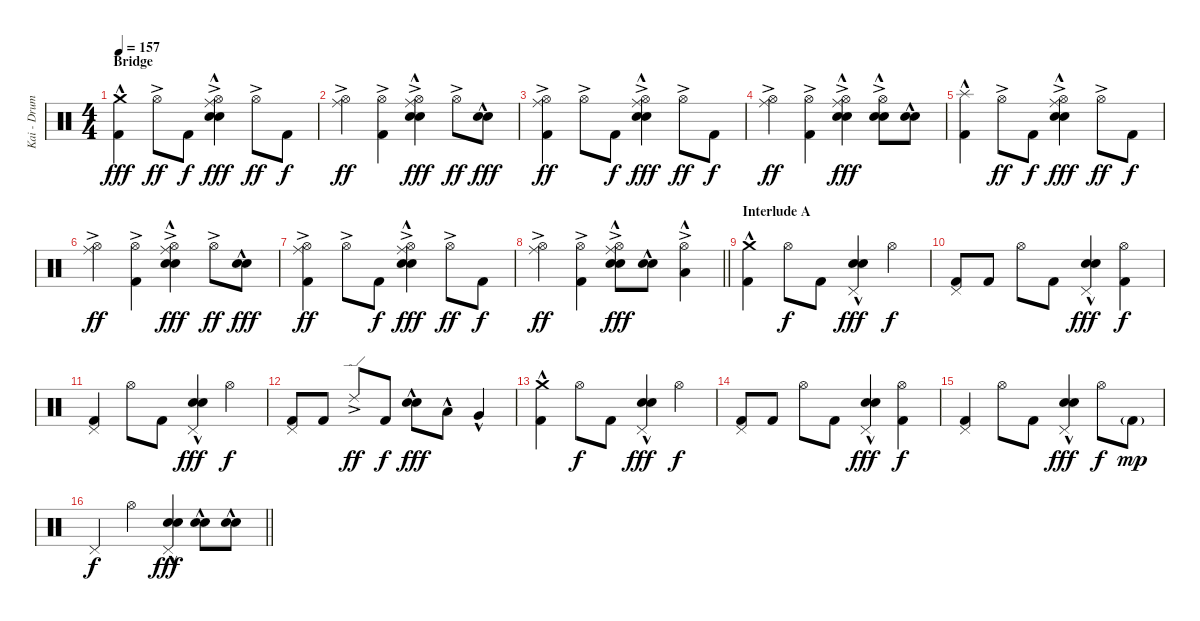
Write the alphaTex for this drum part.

\track ("Kai - Drums" "Kai - Drum") {instrument percussion}
\staff {score}
\articulation defaults
\ts (4 4)
\section ("" "Bridge")
\tempo 157
\clef neutral
\ks c
("Crash medium (hit)"{hac} "Kick (hit) 2").4{dy fff} "Hi-Hat (open)"{ac}.8{dy ff} "Kick (hit) 2".8{dy f} ("Hi-Hat (open)"{ac} "Ride (middle)" "Electric Snare (hit)"{hac} "Snare (hit) 2"{hac}).4{dy fff} "Hi-Hat (open)"{ac}.8{dy ff} "Kick (hit) 2".8{dy f} |
("Hi-Hat (open)"{ac} "Ride (middle)").4{dy ff} ("Hi-Hat (open)"{ac} "Kick (hit) 2").4 ("Hi-Hat (open)"{ac} "Ride (middle)" "Electric Snare (hit)"{hac} "Snare (hit) 2"{hac}).4{dy fff} "Hi-Hat (open)"{ac}.8{dy ff} ("Electric Snare (hit)"{hac} "Snare (hit) 2"{hac}).8{dy fff} |
("Hi-Hat (open)"{ac} "Ride (middle)" "Kick (hit) 2").4{dy ff} "Hi-Hat (open)"{ac}.8 "Kick (hit) 2".8{dy f} ("Hi-Hat (open)"{ac} "Ride (middle)" "Electric Snare (hit)"{hac} "Snare (hit) 2"{hac}).4{dy fff} "Hi-Hat (open)"{ac}.8{dy ff} "Kick (hit) 2".8{dy f} |
("Hi-Hat (open)"{ac} "Ride (middle)").4{dy ff} ("Hi-Hat (open)"{ac} "Kick (hit) 2").4 ("Hi-Hat (open)"{ac} "Ride (middle)" "Electric Snare (hit)"{hac} "Snare (hit) 2"{hac}).4{dy fff} ("Hi-Hat (open)"{ac} "Electric Snare (hit)"{hac} "Snare (hit) 2"{hac}).8 ("Electric Snare (hit)"{hac} "Snare (hit) 2"{hac}).8 |
("Splash (hit)"{hac} "Kick (hit) 2").4 "Hi-Hat (open)"{ac}.8{dy ff} "Kick (hit) 2".8{dy f} ("Hi-Hat (open)"{ac} "Ride (middle)" "Electric Snare (hit)"{hac} "Snare (hit) 2"{hac}).4{dy fff} "Hi-Hat (open)"{ac}.8{dy ff} "Kick (hit) 2".8{dy f} |
("Hi-Hat (open)"{ac} "Ride (middle)").4{dy ff} ("Hi-Hat (open)"{ac} "Kick (hit) 2").4 ("Hi-Hat (open)"{ac} "Ride (middle)" "Electric Snare (hit)"{hac} "Snare (hit) 2"{hac}).4{dy fff} "Hi-Hat (open)"{ac}.8{dy ff} ("Electric Snare (hit)"{hac} "Snare (hit) 2"{hac}).8{dy fff} |
("Hi-Hat (open)"{ac} "Ride (middle)" "Kick (hit) 2").4{dy ff} "Hi-Hat (open)"{ac}.8 "Kick (hit) 2".8{dy f} ("Hi-Hat (open)"{ac} "Ride (middle)" "Electric Snare (hit)"{hac} "Snare (hit) 2"{hac}).4{dy fff} "Hi-Hat (open)"{ac}.8{dy ff} "Kick (hit) 2".8{dy f} |
\barLineRight lightlight
("Hi-Hat (open)"{ac} "Ride (middle)").4{dy ff} ("Hi-Hat (open)"{ac} "Kick (hit) 2").4 ("Hi-Hat (open)"{ac} "Ride (middle)" "Electric Snare (hit)"{hac} "Snare (hit) 2"{hac}).8{dy fff} ("Electric Snare (hit)"{hac} "Snare (hit) 2"{hac}).8 ("Hi-Hat (open)"{ac} "Low Tom (hit)"{hac}).4 |
\section ("" "Interlude A")
("Crash medium (hit)"{hac} "Kick (hit) 2").4{volume 16} "Hi-Hat (open)".8{dy f} "Kick (hit) 2".8 ("Pedal Hi-Hat (hit)" "Electric Snare (hit)"{hac} "Snare (hit) 2"{hac}).4{dy fff} "Hi-Hat (open)".4{dy f} |
("Pedal Hi-Hat (hit)" "Kick (hit) 2").8 "Kick (hit) 2".8 "Hi-Hat (open)".8 "Kick (hit) 2".8 ("Pedal Hi-Hat (hit)" "Electric Snare (hit)"{hac} "Snare (hit) 2"{hac}).4{dy fff} ("Hi-Hat (open)" "Kick (hit) 2").4{dy f} |
("Pedal Hi-Hat (hit)" "Kick (hit) 2").4 "Hi-Hat (open)".8 "Kick (hit) 2".8 ("Pedal Hi-Hat (hit)" "Electric Snare (hit)"{hac} "Snare (hit) 2"{hac}).4{dy fff} "Hi-Hat (open)".4{dy f} |
("Pedal Hi-Hat (hit)" "Kick (hit) 2").8 "Kick (hit) 2".8 "Ride (edge) 2"{ac}.8{dy ff} "Kick (hit) 2".8{dy f} ("Electric Snare (hit)"{hac} "Snare (hit) 2"{hac}).8{dy fff} "Low Tom (hit)"{hac}.8 "Very Low Tom (hit)"{hac}.4 |
("Crash medium (hit)"{hac} "Kick (hit) 2").4 "Hi-Hat (open)".8{dy f} "Kick (hit) 2".8 ("Pedal Hi-Hat (hit)" "Electric Snare (hit)"{hac} "Snare (hit) 2"{hac}).4{dy fff} "Hi-Hat (open)".4{dy f} |
("Pedal Hi-Hat (hit)" "Kick (hit) 2").8 "Kick (hit) 2".8 "Hi-Hat (open)".8 "Kick (hit) 2".8 ("Pedal Hi-Hat (hit)" "Electric Snare (hit)"{hac} "Snare (hit) 2"{hac}).4{dy fff} ("Hi-Hat (open)" "Kick (hit) 2").4{dy f} |
("Pedal Hi-Hat (hit)" "Kick (hit) 2").4 "Hi-Hat (open)".8 "Kick (hit) 2".8 ("Pedal Hi-Hat (hit)" "Electric Snare (hit)"{hac} "Snare (hit) 2"{hac}).4{dy fff} "Hi-Hat (open)".8{dy f} "Kick (hit) 2"{g}.8{dy mp} |
\barLineRight lightlight "Pedal Hi-Hat (hit)".4{dy f} "Hi-Hat (open)".4
("Pedal Hi-Hat (hit)" "Electric Snare (hit)"{hac} "Snare (hit) 2"{hac}).4{dy fff} ("Electric Snare (hit)"{hac} "Snare (hit) 2"{hac}).8 ("Electric Snare (hit)"{hac} "Snare (hit) 2"{hac}).8
